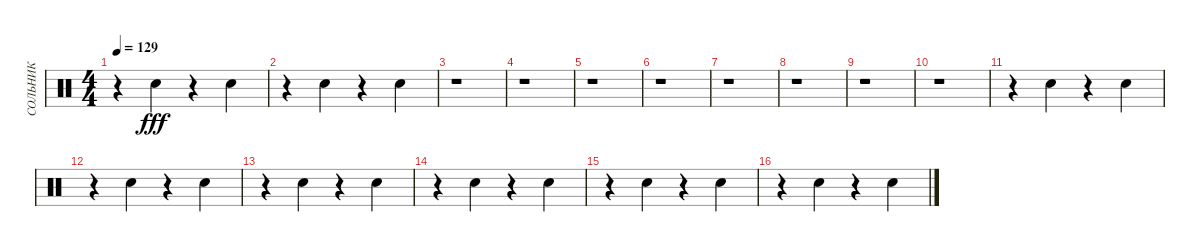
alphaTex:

\track ("СОЛЬНИК" "СОЛЬНИК") {instrument percussion}
\staff {score}
\articulation defaults
\ts (4 4)
\tempo 129
\clef neutral
\ks c
r.4{dy fff} "Snare (hit) 2".4 r.4 "Snare (hit) 2".4 |
r.4 "Snare (hit) 2".4 r.4 "Snare (hit) 2".4 |
r.1 |
r.1 |
r.1 |
r.1 |
r.1 |
r.1 |
r.1 |
r.1 |
r.4 "Snare (hit) 2".4 r.4 "Snare (hit) 2".4 |
r.4 "Snare (hit) 2".4 r.4 "Snare (hit) 2".4 |
r.4 "Snare (hit) 2".4 r.4 "Snare (hit) 2".4 |
r.4 "Snare (hit) 2".4 r.4 "Snare (hit) 2".4 |
r.4 "Snare (hit) 2".4 r.4 "Snare (hit) 2".4 |
r.4 "Snare (hit) 2".4 r.4 "Snare (hit) 2".4
